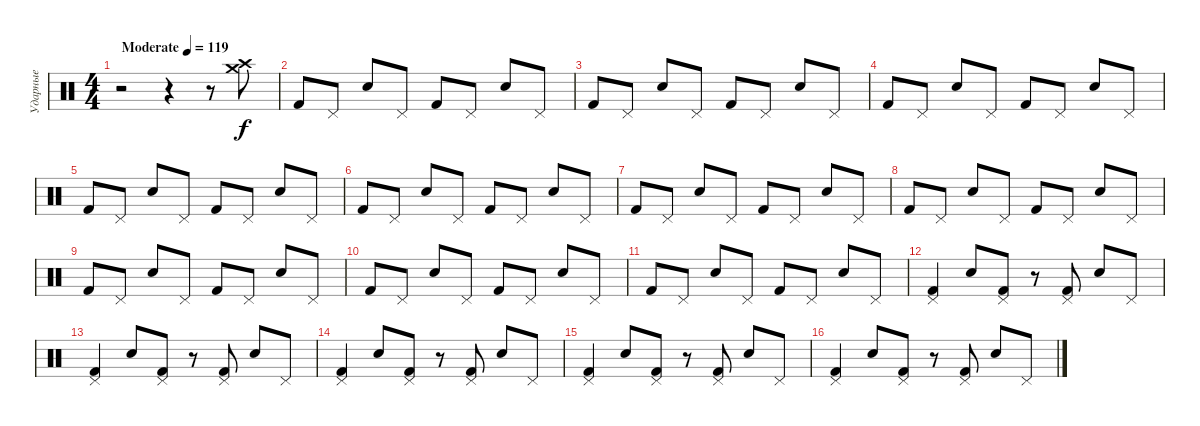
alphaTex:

\track ("Ударные" "Ударные") {instrument percussion}
\staff {score}
\articulation defaults
\ts (4 4)
\tempo (119 "Moderate")
\clef neutral
\ks c
r.2{dy f} r.4 r.8 ("Crash high (hit)" "Crash medium (hit)").8 |
"Kick (hit) 2".8 "Pedal Hi-Hat (hit)".8 "Electric Snare (hit)".8 "Pedal Hi-Hat (hit)".8 "Kick (hit) 2".8 "Pedal Hi-Hat (hit)".8 "Electric Snare (hit)".8 "Pedal Hi-Hat (hit)".8 |
"Kick (hit) 2".8 "Pedal Hi-Hat (hit)".8 "Electric Snare (hit)".8 "Pedal Hi-Hat (hit)".8 "Kick (hit) 2".8 "Pedal Hi-Hat (hit)".8 "Electric Snare (hit)".8 "Pedal Hi-Hat (hit)".8 |
"Kick (hit) 2".8 "Pedal Hi-Hat (hit)".8 "Electric Snare (hit)".8 "Pedal Hi-Hat (hit)".8 "Kick (hit) 2".8 "Pedal Hi-Hat (hit)".8 "Electric Snare (hit)".8 "Pedal Hi-Hat (hit)".8 |
"Kick (hit) 2".8 "Pedal Hi-Hat (hit)".8 "Electric Snare (hit)".8 "Pedal Hi-Hat (hit)".8 "Kick (hit) 2".8 "Pedal Hi-Hat (hit)".8 "Electric Snare (hit)".8 "Pedal Hi-Hat (hit)".8 |
"Kick (hit) 2".8 "Pedal Hi-Hat (hit)".8 "Electric Snare (hit)".8 "Pedal Hi-Hat (hit)".8 "Kick (hit) 2".8 "Pedal Hi-Hat (hit)".8 "Electric Snare (hit)".8 "Pedal Hi-Hat (hit)".8 |
"Kick (hit) 2".8 "Pedal Hi-Hat (hit)".8 "Electric Snare (hit)".8 "Pedal Hi-Hat (hit)".8 "Kick (hit) 2".8 "Pedal Hi-Hat (hit)".8 "Electric Snare (hit)".8 "Pedal Hi-Hat (hit)".8 |
"Kick (hit) 2".8 "Pedal Hi-Hat (hit)".8 "Electric Snare (hit)".8 "Pedal Hi-Hat (hit)".8 "Kick (hit) 2".8 "Pedal Hi-Hat (hit)".8 "Electric Snare (hit)".8 "Pedal Hi-Hat (hit)".8 |
"Kick (hit) 2".8 "Pedal Hi-Hat (hit)".8 "Electric Snare (hit)".8 "Pedal Hi-Hat (hit)".8 "Kick (hit) 2".8 "Pedal Hi-Hat (hit)".8 "Electric Snare (hit)".8 "Pedal Hi-Hat (hit)".8 |
"Kick (hit) 2".8 "Pedal Hi-Hat (hit)".8 "Electric Snare (hit)".8 "Pedal Hi-Hat (hit)".8 "Kick (hit) 2".8 "Pedal Hi-Hat (hit)".8 "Electric Snare (hit)".8 "Pedal Hi-Hat (hit)".8 |
"Kick (hit) 2".8 "Pedal Hi-Hat (hit)".8 "Electric Snare (hit)".8 "Pedal Hi-Hat (hit)".8 "Kick (hit) 2".8 "Pedal Hi-Hat (hit)".8 "Electric Snare (hit)".8 "Pedal Hi-Hat (hit)".8 |
("Pedal Hi-Hat (hit)" "Kick (hit) 2").4 "Electric Snare (hit)".8 ("Pedal Hi-Hat (hit)" "Kick (hit) 2").8 r.8 ("Pedal Hi-Hat (hit)" "Kick (hit) 2").8 "Electric Snare (hit)".8 "Pedal Hi-Hat (hit)".8 |
("Pedal Hi-Hat (hit)" "Kick (hit) 2").4 "Electric Snare (hit)".8 ("Pedal Hi-Hat (hit)" "Kick (hit) 2").8 r.8 ("Pedal Hi-Hat (hit)" "Kick (hit) 2").8 "Electric Snare (hit)".8 "Pedal Hi-Hat (hit)".8 |
("Pedal Hi-Hat (hit)" "Kick (hit) 2").4 "Electric Snare (hit)".8 ("Pedal Hi-Hat (hit)" "Kick (hit) 2").8 r.8 ("Pedal Hi-Hat (hit)" "Kick (hit) 2").8 "Electric Snare (hit)".8 "Pedal Hi-Hat (hit)".8 |
("Pedal Hi-Hat (hit)" "Kick (hit) 2").4 "Electric Snare (hit)".8 ("Pedal Hi-Hat (hit)" "Kick (hit) 2").8 r.8 ("Pedal Hi-Hat (hit)" "Kick (hit) 2").8 "Electric Snare (hit)".8 "Pedal Hi-Hat (hit)".8 |
("Pedal Hi-Hat (hit)" "Kick (hit) 2").4 "Electric Snare (hit)".8 ("Pedal Hi-Hat (hit)" "Kick (hit) 2").8 r.8 ("Pedal Hi-Hat (hit)" "Kick (hit) 2").8 "Electric Snare (hit)".8 "Pedal Hi-Hat (hit)".8
